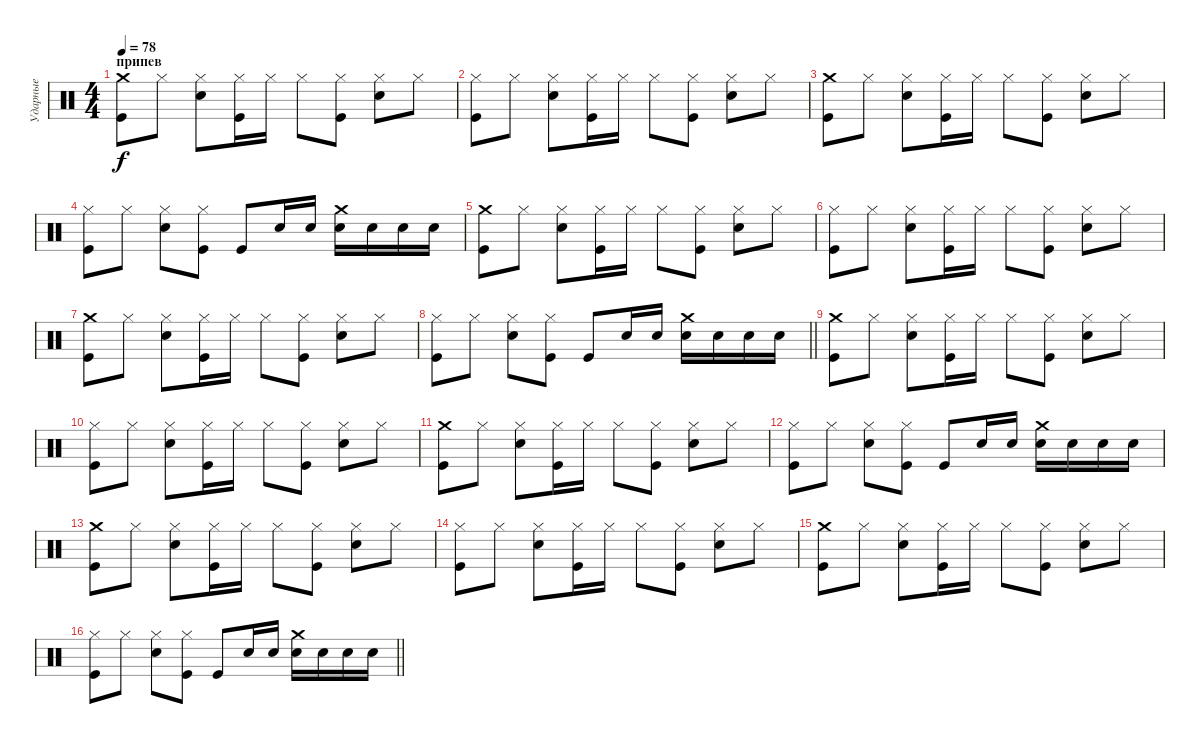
\track ("Ударные" "Ударные") {instrument percussion}
\staff {score}
\articulation defaults
\ts (4 4)
\section ("" "припев")
\tempo 78
\clef neutral
\ks c
("Crash medium (hit)" "Kick (hit)").8{dy f} "Hi-Hat (closed)".8 ("Hi-Hat (closed)" "Snare (hit) 2").8 ("Hi-Hat (closed)" "Kick (hit)").16 "Hi-Hat (closed)".16 "Hi-Hat (closed)".8 ("Hi-Hat (closed)" "Kick (hit)").8 ("Hi-Hat (closed)" "Snare (hit) 2").8 "Hi-Hat (closed)".8 |
("Hi-Hat (closed)" "Kick (hit)").8 "Hi-Hat (closed)".8 ("Hi-Hat (closed)" "Snare (hit) 2").8 ("Hi-Hat (closed)" "Kick (hit)").16 "Hi-Hat (closed)".16 "Hi-Hat (closed)".8 ("Hi-Hat (closed)" "Kick (hit)").8 ("Hi-Hat (closed)" "Snare (hit) 2").8 "Hi-Hat (closed)".8 |
("Crash medium (hit)" "Kick (hit)").8 "Hi-Hat (closed)".8 ("Hi-Hat (closed)" "Snare (hit) 2").8 ("Hi-Hat (closed)" "Kick (hit)").16 "Hi-Hat (closed)".16 "Hi-Hat (closed)".8 ("Hi-Hat (closed)" "Kick (hit)").8 ("Hi-Hat (closed)" "Snare (hit) 2").8 "Hi-Hat (closed)".8 |
("Hi-Hat (closed)" "Kick (hit)").8 "Hi-Hat (closed)".8 ("Hi-Hat (closed)" "Snare (hit) 2").8 ("Hi-Hat (closed)" "Kick (hit)").8 "Kick (hit)".8 "Snare (hit) 2".16 "Snare (hit) 2".16 ("Snare (hit) 2" "Crash medium (hit)").16 "Snare (hit) 2".16 "Snare (hit) 2".16 "Snare (hit) 2".16 |
("Crash medium (hit)" "Kick (hit)").8 "Hi-Hat (closed)".8 ("Hi-Hat (closed)" "Snare (hit) 2").8 ("Hi-Hat (closed)" "Kick (hit)").16 "Hi-Hat (closed)".16 "Hi-Hat (closed)".8 ("Hi-Hat (closed)" "Kick (hit)").8 ("Hi-Hat (closed)" "Snare (hit) 2").8 "Hi-Hat (closed)".8 |
("Hi-Hat (closed)" "Kick (hit)").8 "Hi-Hat (closed)".8 ("Hi-Hat (closed)" "Snare (hit) 2").8 ("Hi-Hat (closed)" "Kick (hit)").16 "Hi-Hat (closed)".16 "Hi-Hat (closed)".8 ("Hi-Hat (closed)" "Kick (hit)").8 ("Hi-Hat (closed)" "Snare (hit) 2").8 "Hi-Hat (closed)".8 |
("Crash medium (hit)" "Kick (hit)").8 "Hi-Hat (closed)".8 ("Hi-Hat (closed)" "Snare (hit) 2").8 ("Hi-Hat (closed)" "Kick (hit)").16 "Hi-Hat (closed)".16 "Hi-Hat (closed)".8 ("Hi-Hat (closed)" "Kick (hit)").8 ("Hi-Hat (closed)" "Snare (hit) 2").8 "Hi-Hat (closed)".8 |
\barLineRight lightlight
("Hi-Hat (closed)" "Kick (hit)").8 "Hi-Hat (closed)".8 ("Hi-Hat (closed)" "Snare (hit) 2").8 ("Hi-Hat (closed)" "Kick (hit)").8 "Kick (hit)".8 "Snare (hit) 2".16 "Snare (hit) 2".16 ("Snare (hit) 2" "Crash medium (hit)").16 "Snare (hit) 2".16 "Snare (hit) 2".16 "Snare (hit) 2".16 |
("Crash medium (hit)" "Kick (hit)").8 "Hi-Hat (closed)".8 ("Hi-Hat (closed)" "Snare (hit) 2").8 ("Hi-Hat (closed)" "Kick (hit)").16 "Hi-Hat (closed)".16 "Hi-Hat (closed)".8 ("Hi-Hat (closed)" "Kick (hit)").8 ("Hi-Hat (closed)" "Snare (hit) 2").8 "Hi-Hat (closed)".8 |
("Hi-Hat (closed)" "Kick (hit)").8 "Hi-Hat (closed)".8 ("Hi-Hat (closed)" "Snare (hit) 2").8 ("Hi-Hat (closed)" "Kick (hit)").16 "Hi-Hat (closed)".16 "Hi-Hat (closed)".8 ("Hi-Hat (closed)" "Kick (hit)").8 ("Hi-Hat (closed)" "Snare (hit) 2").8 "Hi-Hat (closed)".8 |
("Crash medium (hit)" "Kick (hit)").8 "Hi-Hat (closed)".8 ("Hi-Hat (closed)" "Snare (hit) 2").8 ("Hi-Hat (closed)" "Kick (hit)").16 "Hi-Hat (closed)".16 "Hi-Hat (closed)".8 ("Hi-Hat (closed)" "Kick (hit)").8 ("Hi-Hat (closed)" "Snare (hit) 2").8 "Hi-Hat (closed)".8 |
("Hi-Hat (closed)" "Kick (hit)").8 "Hi-Hat (closed)".8 ("Hi-Hat (closed)" "Snare (hit) 2").8 ("Hi-Hat (closed)" "Kick (hit)").8 "Kick (hit)".8 "Snare (hit) 2".16 "Snare (hit) 2".16 ("Snare (hit) 2" "Crash medium (hit)").16 "Snare (hit) 2".16 "Snare (hit) 2".16 "Snare (hit) 2".16 |
("Crash medium (hit)" "Kick (hit)").8 "Hi-Hat (closed)".8 ("Hi-Hat (closed)" "Snare (hit) 2").8 ("Hi-Hat (closed)" "Kick (hit)").16 "Hi-Hat (closed)".16 "Hi-Hat (closed)".8 ("Hi-Hat (closed)" "Kick (hit)").8 ("Hi-Hat (closed)" "Snare (hit) 2").8 "Hi-Hat (closed)".8 |
("Hi-Hat (closed)" "Kick (hit)").8 "Hi-Hat (closed)".8 ("Hi-Hat (closed)" "Snare (hit) 2").8 ("Hi-Hat (closed)" "Kick (hit)").16 "Hi-Hat (closed)".16 "Hi-Hat (closed)".8 ("Hi-Hat (closed)" "Kick (hit)").8 ("Hi-Hat (closed)" "Snare (hit) 2").8 "Hi-Hat (closed)".8 |
("Crash medium (hit)" "Kick (hit)").8 "Hi-Hat (closed)".8 ("Hi-Hat (closed)" "Snare (hit) 2").8 ("Hi-Hat (closed)" "Kick (hit)").16 "Hi-Hat (closed)".16 "Hi-Hat (closed)".8 ("Hi-Hat (closed)" "Kick (hit)").8 ("Hi-Hat (closed)" "Snare (hit) 2").8 "Hi-Hat (closed)".8 |
\barLineRight lightlight
("Hi-Hat (closed)" "Kick (hit)").8 "Hi-Hat (closed)".8 ("Hi-Hat (closed)" "Snare (hit) 2").8 ("Hi-Hat (closed)" "Kick (hit)").8 "Kick (hit)".8 "Snare (hit) 2".16 "Snare (hit) 2".16 ("Snare (hit) 2" "Crash medium (hit)").16 "Snare (hit) 2".16 "Snare (hit) 2".16 "Snare (hit) 2".16
